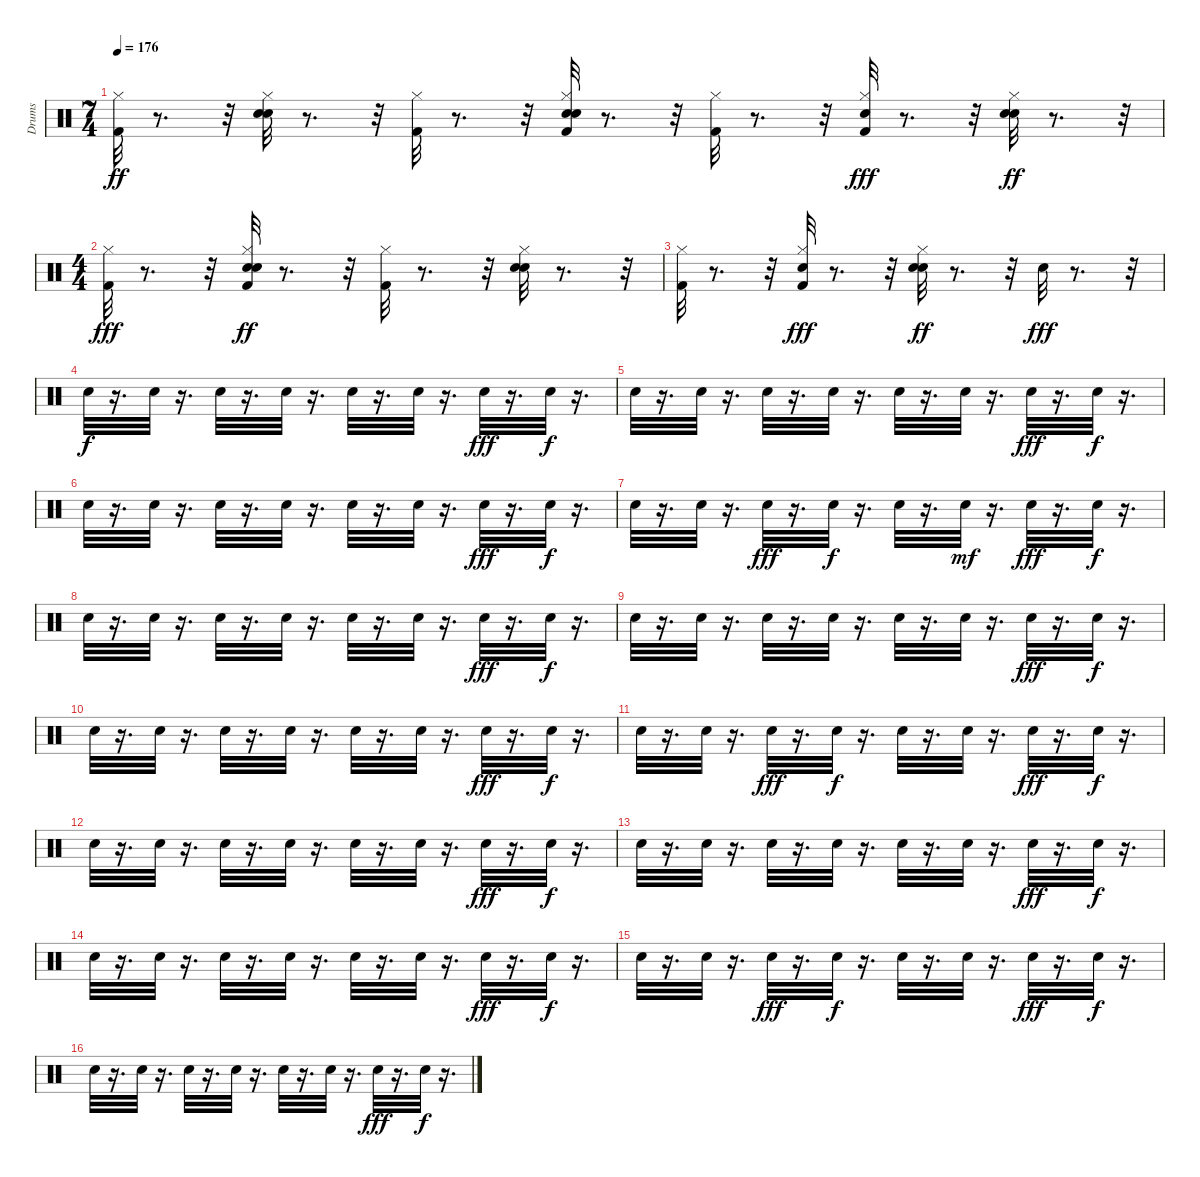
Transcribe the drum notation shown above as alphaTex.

\track ("Drums" "Drums") {instrument percussion}
\staff {score}
\articulation defaults
\ts (7 4)
\tempo 176
\clef neutral
\ks c
("Kick (hit) 2" "Hi-Hat (closed)").32{dy ff} r.8{d} r.32 ("Hand Clap (hit)" "Snare (hit) 2" "Hi-Hat (closed)").32 r.8{d} r.32 ("Kick (hit) 2" "Hi-Hat (closed)").32 r.8{d} r.32 ("Hand Clap (hit)" "Snare (hit) 2" "Kick (hit) 2" "Hi-Hat (closed)").32 r.8{d} r.32 ("Kick (hit) 2" "Hi-Hat (closed)").32 r.8{d} r.32 ("Hand Clap (hit)" "Kick (hit) 2" "Hi-Hat (closed)").32{dy fff} r.8{d} r.32 ("Hand Clap (hit)" "Snare (hit) 2" "Hi-Hat (closed)").32{dy ff} r.8{d} r.32 |
\ts (4 4)
("Kick (hit) 2" "Hi-Hat (closed)").32{dy fff} r.8{d} r.32 ("Hand Clap (hit)" "Kick (hit) 2" "Snare (hit) 2" "Hi-Hat (closed)").32{dy ff} r.8{d} r.32 ("Kick (hit) 2" "Hi-Hat (closed)").32 r.8{d} r.32 ("Hand Clap (hit)" "Snare (hit) 2" "Hi-Hat (closed)").32 r.8{d} r.32 |
("Kick (hit) 2" "Hi-Hat (closed)").32 r.8{d} r.32 ("Hand Clap (hit)" "Kick (hit) 2" "Hi-Hat (closed)").32{dy fff} r.8{d} r.32 ("Hand Clap (hit)" "Snare (hit) 2" "Hi-Hat (closed)").32{dy ff} r.8{d} r.32 "Snare (hit) 2".32{dy fff} r.8{d} r.32 |
"Snare (hit) 2".32{dy f} r.16{d} "Snare (hit) 2".32 r.16{d} "Snare (hit) 2".32 r.16{d} "Snare (hit) 2".32 r.16{d} "Snare (hit) 2".32 r.16{d} "Snare (hit) 2".32 r.16{d} "Snare (hit) 2".32{dy fff} r.16{d} "Snare (hit) 2".32{dy f} r.16{d} |
"Snare (hit) 2".32 r.16{d} "Snare (hit) 2".32 r.16{d} "Snare (hit) 2".32 r.16{d} "Snare (hit) 2".32 r.16{d} "Snare (hit) 2".32 r.16{d} "Snare (hit) 2".32 r.16{d} "Snare (hit) 2".32{dy fff} r.16{d} "Snare (hit) 2".32{dy f} r.16{d} |
"Snare (hit) 2".32 r.16{d} "Snare (hit) 2".32 r.16{d} "Snare (hit) 2".32 r.16{d} "Snare (hit) 2".32 r.16{d} "Snare (hit) 2".32 r.16{d} "Snare (hit) 2".32 r.16{d} "Snare (hit) 2".32{dy fff} r.16{d} "Snare (hit) 2".32{dy f} r.16{d} |
"Snare (hit) 2".32 r.16{d} "Snare (hit) 2".32 r.16{d} "Snare (hit) 2".32{dy fff} r.16{d} "Snare (hit) 2".32{dy f} r.16{d} "Snare (hit) 2".32 r.16{d} "Snare (hit) 2".32{dy mf} r.16{d} "Snare (hit) 2".32{dy fff} r.16{d} "Snare (hit) 2".32{dy f} r.16{d} |
"Snare (hit) 2".32 r.16{d} "Snare (hit) 2".32 r.16{d} "Snare (hit) 2".32 r.16{d} "Snare (hit) 2".32 r.16{d} "Snare (hit) 2".32 r.16{d} "Snare (hit) 2".32 r.16{d} "Snare (hit) 2".32{dy fff} r.16{d} "Snare (hit) 2".32{dy f} r.16{d} |
"Snare (hit) 2".32 r.16{d} "Snare (hit) 2".32 r.16{d} "Snare (hit) 2".32 r.16{d} "Snare (hit) 2".32 r.16{d} "Snare (hit) 2".32 r.16{d} "Snare (hit) 2".32 r.16{d} "Snare (hit) 2".32{dy fff} r.16{d} "Snare (hit) 2".32{dy f} r.16{d} |
"Snare (hit) 2".32 r.16{d} "Snare (hit) 2".32 r.16{d} "Snare (hit) 2".32 r.16{d} "Snare (hit) 2".32 r.16{d} "Snare (hit) 2".32 r.16{d} "Snare (hit) 2".32 r.16{d} "Snare (hit) 2".32{dy fff} r.16{d} "Snare (hit) 2".32{dy f} r.16{d} |
"Snare (hit) 2".32 r.16{d} "Snare (hit) 2".32 r.16{d} "Snare (hit) 2".32{dy fff} r.16{d} "Snare (hit) 2".32{dy f} r.16{d} "Snare (hit) 2".32 r.16{d} "Snare (hit) 2".32 r.16{d} "Snare (hit) 2".32{dy fff} r.16{d} "Snare (hit) 2".32{dy f} r.16{d} |
"Snare (hit) 2".32 r.16{d} "Snare (hit) 2".32 r.16{d} "Snare (hit) 2".32 r.16{d} "Snare (hit) 2".32 r.16{d} "Snare (hit) 2".32 r.16{d} "Snare (hit) 2".32 r.16{d} "Snare (hit) 2".32{dy fff} r.16{d} "Snare (hit) 2".32{dy f} r.16{d} |
"Snare (hit) 2".32 r.16{d} "Snare (hit) 2".32 r.16{d} "Snare (hit) 2".32 r.16{d} "Snare (hit) 2".32 r.16{d} "Snare (hit) 2".32 r.16{d} "Snare (hit) 2".32 r.16{d} "Snare (hit) 2".32{dy fff} r.16{d} "Snare (hit) 2".32{dy f} r.16{d} |
"Snare (hit) 2".32 r.16{d} "Snare (hit) 2".32 r.16{d} "Snare (hit) 2".32 r.16{d} "Snare (hit) 2".32 r.16{d} "Snare (hit) 2".32 r.16{d} "Snare (hit) 2".32 r.16{d} "Snare (hit) 2".32{dy fff} r.16{d} "Snare (hit) 2".32{dy f} r.16{d} |
"Snare (hit) 2".32 r.16{d} "Snare (hit) 2".32 r.16{d} "Snare (hit) 2".32{dy fff} r.16{d} "Snare (hit) 2".32{dy f} r.16{d} "Snare (hit) 2".32 r.16{d} "Snare (hit) 2".32 r.16{d} "Snare (hit) 2".32{dy fff} r.16{d} "Snare (hit) 2".32{dy f} r.16{d} |
"Snare (hit) 2".32 r.16{d} "Snare (hit) 2".32 r.16{d} "Snare (hit) 2".32 r.16{d} "Snare (hit) 2".32 r.16{d} "Snare (hit) 2".32 r.16{d} "Snare (hit) 2".32 r.16{d} "Snare (hit) 2".32{dy fff} r.16{d} "Snare (hit) 2".32{dy f} r.16{d}
